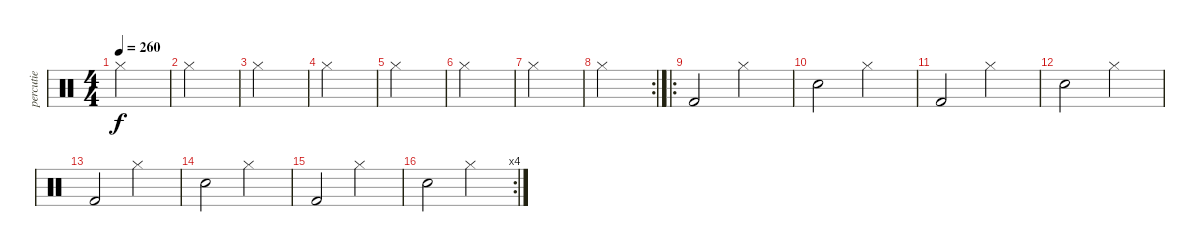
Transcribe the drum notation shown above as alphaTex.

\track ("percutie" "percutie") {instrument percussion}
\staff {score}
\articulation defaults
\ts (4 4)
\tempo 260
\clef neutral
\ks c "Hi-Hat (closed)".2{dy f}
|
"Hi-Hat (closed)".2 |
"Hi-Hat (closed)".2 |
"Hi-Hat (closed)".2 |
"Hi-Hat (closed)".2 |
"Hi-Hat (closed)".2 |
"Hi-Hat (closed)".2 |
\rc 2 "Hi-Hat (closed)".2
|
\ro "Kick (hit) 2".2 "Hi-Hat (closed)".2
|
"Snare (hit) 2".2 "Hi-Hat (closed)".2 |
"Kick (hit) 2".2 "Hi-Hat (closed)".2 |
"Snare (hit) 2".2 "Hi-Hat (closed)".2 |
"Kick (hit) 2".2 "Hi-Hat (closed)".2 |
"Snare (hit) 2".2 "Hi-Hat (closed)".2 |
"Kick (hit) 2".2 "Hi-Hat (closed)".2 |
\rc 4 "Snare (hit) 2".2 "Hi-Hat (closed)".2
